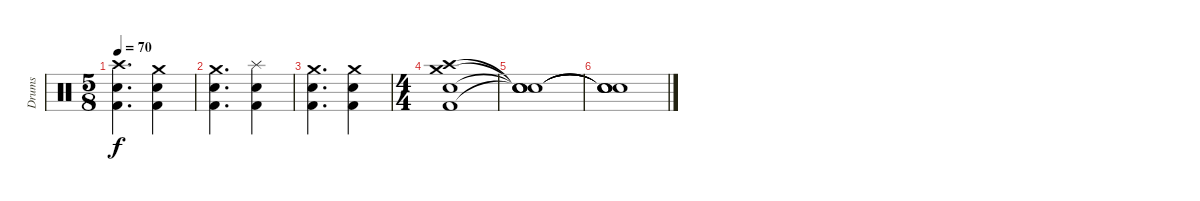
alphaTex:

\track ("Drums" "Drums") {instrument percussion}
\staff {score}
\articulation defaults
\ts (5 8)
\tempo 70
\clef neutral
\ks c
("Crash high (hit)" "Electric Snare (hit)" "Kick (hit) 2").4{d dy f} ("Crash medium (hit)" "Electric Snare (hit)" "Kick (hit) 2").4 |
("Crash medium (hit)" "Electric Snare (hit)" "Kick (hit) 2").4{d} ("Splash (hit)" "Electric Snare (hit)" "Kick (hit) 2").4 |
("Crash medium (hit)" "Electric Snare (hit)" "Kick (hit) 2").4{d} ("Crash medium (hit)" "Electric Snare (hit)" "Kick (hit) 2").4 |
\ts (4 4)
("Crash high (hit)" "Crash medium (hit)" "Electric Snare (hit)" "Kick (hit) 2").1 |
("Snare (hit)"{t} "Snare (hit)"{t} "Snare (hit)"{t} "Snare (hit)"{t}).1 |
("Snare (hit)"{t} "Snare (hit)"{t} "Snare (hit)"{t} "Snare (hit)"{t}).1
